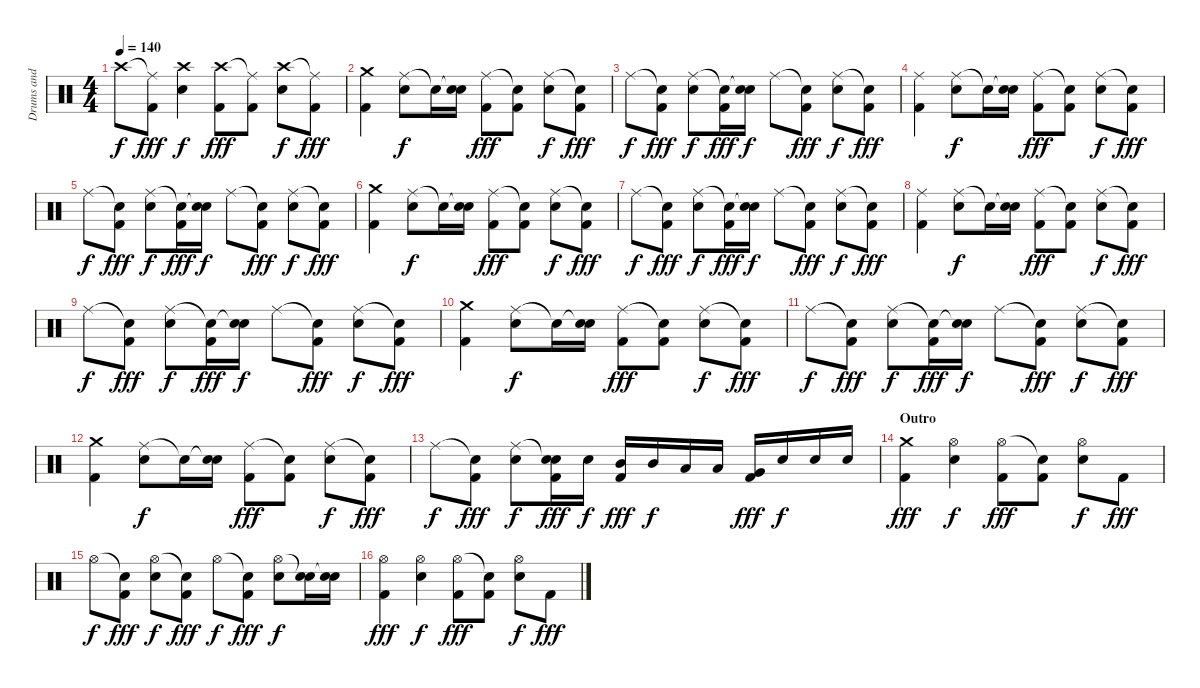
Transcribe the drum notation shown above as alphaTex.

\track ("Drums and Percussion" "Drums and ") {instrument percussion}
\staff {score}
\articulation defaults
\ts (4 4)
\tempo 140
\clef neutral
\ks c "Crash high (hit)".8{dy f}
("Ride (middle)"{t} "Kick (hit) 2").8{dy fff} ("Crash high (hit)" "Snare (hit) 2").4{dy f} ("Crash high (hit)" "Kick (hit) 2").8{dy fff} ("Ride (middle)"{t} "Kick (hit) 2").8 ("Crash high (hit)" "Snare (hit) 2").8{dy f} ("Ride (middle)"{t} "Kick (hit) 2").8{dy fff} |
("Crash medium (hit)" "Kick (hit) 2").4 ("Ride (middle)" "Snare (hit) 2").8{dy f} "Snare (hit)"{t}.16 ("Snare (hit)"{t} "Snare (hit) 2").16 ("Ride (middle)" "Kick (hit) 2").8{dy fff} ("Snare (hit)"{t} "Kick (hit) 2").8 ("Ride (middle)" "Snare (hit) 2").8{dy f} ("Snare (hit)"{t} "Kick (hit) 2").8{dy fff} |
"Ride (middle)".8{dy f} ("Snare (hit)"{t} "Kick (hit) 2").8{dy fff} ("Ride (middle)" "Snare (hit) 2").8{dy f} ("Snare (hit)"{t} "Kick (hit) 2").16{dy fff} ("Snare (hit)"{t} "Snare (hit) 2").16{dy f} "Ride (middle)".8 ("Snare (hit)"{t} "Kick (hit) 2").8{dy fff} ("Ride (middle)" "Snare (hit) 2").8{dy f} ("Snare (hit)"{t} "Kick (hit) 2").8{dy fff} |
("Ride (middle)" "Kick (hit) 2").4 ("Ride (middle)" "Snare (hit) 2").8{dy f} "Snare (hit)"{t}.16 ("Snare (hit)"{t} "Snare (hit) 2").16 ("Ride (middle)" "Kick (hit) 2").8{dy fff} ("Snare (hit)"{t} "Kick (hit) 2").8 ("Ride (middle)" "Snare (hit) 2").8{dy f} ("Snare (hit)"{t} "Kick (hit) 2").8{dy fff} |
"Ride (middle)".8{dy f} ("Snare (hit)"{t} "Kick (hit) 2").8{dy fff} ("Ride (middle)" "Snare (hit) 2").8{dy f} ("Snare (hit)"{t} "Kick (hit) 2").16{dy fff} ("Snare (hit)"{t} "Snare (hit) 2").16{dy f} "Ride (middle)".8 ("Snare (hit)"{t} "Kick (hit) 2").8{dy fff} ("Ride (middle)" "Snare (hit) 2").8{dy f} ("Snare (hit)"{t} "Kick (hit) 2").8{dy fff} |
("Crash medium (hit)" "Kick (hit) 2").4 ("Ride (middle)" "Snare (hit) 2").8{dy f} "Snare (hit)"{t}.16 ("Snare (hit)"{t} "Snare (hit) 2").16 ("Ride (middle)" "Kick (hit) 2").8{dy fff} ("Snare (hit)"{t} "Kick (hit) 2").8 ("Ride (middle)" "Snare (hit) 2").8{dy f} ("Snare (hit)"{t} "Kick (hit) 2").8{dy fff} |
"Ride (middle)".8{dy f} ("Snare (hit)"{t} "Kick (hit) 2").8{dy fff} ("Ride (middle)" "Snare (hit) 2").8{dy f} ("Snare (hit)"{t} "Kick (hit) 2").16{dy fff} ("Snare (hit)"{t} "Snare (hit) 2").16{dy f} "Ride (middle)".8 ("Snare (hit)"{t} "Kick (hit) 2").8{dy fff} ("Ride (middle)" "Snare (hit) 2").8{dy f} ("Snare (hit)"{t} "Kick (hit) 2").8{dy fff} |
("Ride (middle)" "Kick (hit) 2").4 ("Ride (middle)" "Snare (hit) 2").8{dy f} "Snare (hit)"{t}.16 ("Snare (hit)"{t} "Snare (hit) 2").16 ("Ride (middle)" "Kick (hit) 2").8{dy fff} ("Snare (hit)"{t} "Kick (hit) 2").8 ("Ride (middle)" "Snare (hit) 2").8{dy f} ("Snare (hit)"{t} "Kick (hit) 2").8{dy fff} |
"Ride (middle)".8{dy f} ("Snare (hit)"{t} "Kick (hit) 2").8{dy fff} ("Ride (middle)" "Snare (hit) 2").8{dy f} ("Snare (hit)"{t} "Kick (hit) 2").16{dy fff} ("Snare (hit)"{t} "Snare (hit) 2").16{dy f} "Ride (middle)".8 ("Snare (hit)"{t} "Kick (hit) 2").8{dy fff} ("Ride (middle)" "Snare (hit) 2").8{dy f} ("Snare (hit)"{t} "Kick (hit) 2").8{dy fff} |
("Crash medium (hit)" "Kick (hit) 2").4 ("Ride (middle)" "Snare (hit) 2").8{dy f} "Snare (hit)"{t}.16 ("Snare (hit)"{t} "Snare (hit) 2").16 ("Ride (middle)" "Kick (hit) 2").8{dy fff} ("Snare (hit)"{t} "Kick (hit) 2").8 ("Ride (middle)" "Snare (hit) 2").8{dy f} ("Snare (hit)"{t} "Kick (hit) 2").8{dy fff} |
"Ride (middle)".8{dy f} ("Snare (hit)"{t} "Kick (hit) 2").8{dy fff} ("Ride (middle)" "Snare (hit) 2").8{dy f} ("Snare (hit)"{t} "Kick (hit) 2").16{dy fff} ("Snare (hit)"{t} "Snare (hit) 2").16{dy f} "Ride (middle)".8 ("Snare (hit)"{t} "Kick (hit) 2").8{dy fff} ("Ride (middle)" "Snare (hit) 2").8{dy f} ("Snare (hit)"{t} "Kick (hit) 2").8{dy fff} |
("Crash medium (hit)" "Kick (hit) 2").4 ("Ride (middle)" "Snare (hit) 2").8{dy f} "Snare (hit)"{t}.16 ("Snare (hit)"{t} "Snare (hit) 2").16 ("Ride (middle)" "Kick (hit) 2").8{dy fff} ("Snare (hit)"{t} "Kick (hit) 2").8 ("Ride (middle)" "Snare (hit) 2").8{dy f} ("Snare (hit)"{t} "Kick (hit) 2").8{dy fff} |
"Ride (middle)".8{dy f} ("Snare (hit)"{t} "Kick (hit) 2").8{dy fff} ("Ride (middle)" "Snare (hit) 2").8{dy f} ("Snare (hit)"{t} "Snare (hit) 2" "Kick (hit) 2").16{dy fff} "Snare (hit) 2".16{dy f} ("Mid Tom (hit)" "Kick (hit) 2").16{dy fff} "Mid Tom (hit)".16{dy f} "Low Tom (hit)".16 "Low Tom (hit)".16 ("Very Low Tom (hit)" "Kick (hit) 2").16{dy fff} "Snare (hit) 2".16{dy f} "Snare (hit) 2".16 "Snare (hit) 2".16 |
\section ("" "Outro")
("Crash medium (hit)" "Kick (hit) 2").4{dy fff} ("Hi-Hat (open)" "Snare (hit) 2").4{dy f} ("Hi-Hat (open)" "Kick (hit) 2").8{dy fff} ("Snare (hit)"{t} "Kick (hit) 2").8 ("Hi-Hat (open)" "Snare (hit) 2").8{dy f} "Kick (hit) 2".8{dy fff} |
"Hi-Hat (open)".8{dy f} ("Snare (hit)"{t} "Kick (hit) 2").8{dy fff} ("Hi-Hat (open)" "Snare (hit) 2").8{dy f} ("Snare (hit)"{t} "Kick (hit) 2").8{dy fff} "Hi-Hat (open)".8{dy f} ("Snare (hit)"{t} "Kick (hit) 2").8{dy fff} ("Hi-Hat (open)" "Snare (hit) 2").8{dy f} ("Snare (hit)"{t} "Snare (hit) 2").16 ("Snare (hit)"{t} "Snare (hit) 2").16 |
("Hi-Hat (open)" "Kick (hit) 2").4{dy fff} ("Hi-Hat (open)" "Snare (hit) 2").4{dy f} ("Hi-Hat (open)" "Kick (hit) 2").8{dy fff} ("Snare (hit)"{t} "Kick (hit) 2").8 ("Hi-Hat (open)" "Snare (hit) 2").8{dy f} "Kick (hit) 2".8{dy fff}
